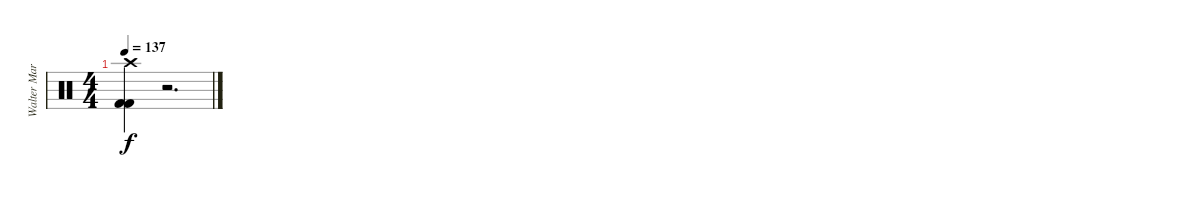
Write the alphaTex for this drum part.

\track ("Walter Martinez (bateria)" "Walter Mar") {instrument percussion}
\staff {score}
\articulation defaults
\ts (4 4)
\tempo 137
\clef neutral
\ks c
("Crash high (hit)" "Kick (hit) 2" "Kick (hit) 2").4{dy f} r.2{d}
